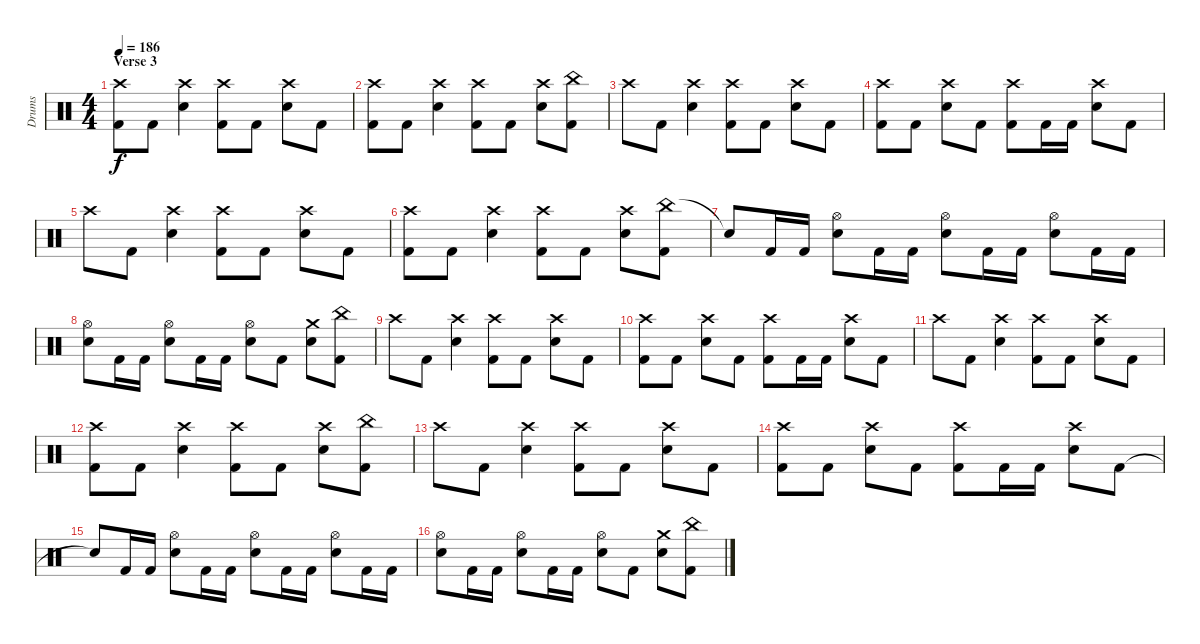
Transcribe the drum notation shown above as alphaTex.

\track ("Drums" "Drums") {instrument percussion}
\staff {score}
\articulation defaults
\ts (4 4)
\section ("" "Verse 3")
\tempo 186
\clef neutral
\ks c
("Crash high (hit)" "Kick (hit) 2").8{dy f} "Kick (hit) 2".8 ("Crash high (hit)" "Snare (hit) 2").4 ("Crash high (hit)" "Kick (hit) 2").8 "Kick (hit) 2".8 ("Crash high (hit)" "Snare (hit) 2").8 "Kick (hit) 2".8 |
("Crash high (hit)" "Kick (hit) 2").8 "Kick (hit) 2".8 ("Crash high (hit)" "Snare (hit) 2").4 ("Crash high (hit)" "Kick (hit) 2").8 "Kick (hit) 2".8 ("Crash high (hit)" "Snare (hit) 2").8 ("China (hit)" "Kick (hit) 2").8 |
"Crash high (hit)".8 "Kick (hit) 2".8 ("Crash high (hit)" "Snare (hit) 2").4 ("Crash high (hit)" "Kick (hit) 2").8 "Kick (hit) 2".8 ("Crash high (hit)" "Snare (hit) 2").8 "Kick (hit) 2".8 |
("Crash high (hit)" "Kick (hit) 2").8 "Kick (hit) 2".8 ("Crash high (hit)" "Snare (hit) 2").8 "Kick (hit) 2".8 ("Crash high (hit)" "Kick (hit) 2").8 "Kick (hit) 2".16 "Kick (hit) 2".16 ("Crash high (hit)" "Snare (hit) 2").8 "Kick (hit) 2".8 |
"Crash high (hit)".8 "Kick (hit) 2".8 ("Crash high (hit)" "Snare (hit) 2").4 ("Crash high (hit)" "Kick (hit) 2").8 "Kick (hit) 2".8 ("Crash high (hit)" "Snare (hit) 2").8 "Kick (hit) 2".8 |
("Crash high (hit)" "Kick (hit) 2").8 "Kick (hit) 2".8 ("Crash high (hit)" "Snare (hit) 2").4 ("Crash high (hit)" "Kick (hit) 2").8 "Kick (hit) 2".8 ("Crash high (hit)" "Snare (hit) 2").8 ("China (hit)" "Kick (hit) 2").8 |
"Snare (hit)"{t}.8 "Kick (hit) 2".16 "Kick (hit) 2".16 ("Hi-Hat (open)" "Snare (hit) 2").8 "Kick (hit) 2".16 "Kick (hit) 2".16 ("Hi-Hat (open)" "Snare (hit) 2").8 "Kick (hit) 2".16 "Kick (hit) 2".16 ("Hi-Hat (open)" "Snare (hit) 2").8 "Kick (hit) 2".16 "Kick (hit) 2".16 |
("Hi-Hat (open)" "Snare (hit) 2").8 "Kick (hit) 2".16 "Kick (hit) 2".16 ("Hi-Hat (open)" "Snare (hit) 2").8 "Kick (hit) 2".16 "Kick (hit) 2".16 ("Hi-Hat (open)" "Snare (hit) 2").8 "Kick (hit) 2".8 ("Crash medium (hit)" "Snare (hit) 2").8 ("China (hit)" "Kick (hit) 2").8 |
"Crash high (hit)".8 "Kick (hit) 2".8 ("Crash high (hit)" "Snare (hit) 2").4 ("Crash high (hit)" "Kick (hit) 2").8 "Kick (hit) 2".8 ("Crash high (hit)" "Snare (hit) 2").8 "Kick (hit) 2".8 |
("Crash high (hit)" "Kick (hit) 2").8 "Kick (hit) 2".8 ("Crash high (hit)" "Snare (hit) 2").8 "Kick (hit) 2".8 ("Crash high (hit)" "Kick (hit) 2").8 "Kick (hit) 2".16 "Kick (hit) 2".16 ("Crash high (hit)" "Snare (hit) 2").8 "Kick (hit) 2".8 |
"Crash high (hit)".8 "Kick (hit) 2".8 ("Crash high (hit)" "Snare (hit) 2").4 ("Crash high (hit)" "Kick (hit) 2").8 "Kick (hit) 2".8 ("Crash high (hit)" "Snare (hit) 2").8 "Kick (hit) 2".8 |
("Crash high (hit)" "Kick (hit) 2").8 "Kick (hit) 2".8 ("Crash high (hit)" "Snare (hit) 2").4 ("Crash high (hit)" "Kick (hit) 2").8 "Kick (hit) 2".8 ("Crash high (hit)" "Snare (hit) 2").8 ("China (hit)" "Kick (hit) 2").8 |
"Crash high (hit)".8 "Kick (hit) 2".8 ("Crash high (hit)" "Snare (hit) 2").4 ("Crash high (hit)" "Kick (hit) 2").8 "Kick (hit) 2".8 ("Crash high (hit)" "Snare (hit) 2").8 "Kick (hit) 2".8 |
("Crash high (hit)" "Kick (hit) 2").8 "Kick (hit) 2".8 ("Crash high (hit)" "Snare (hit) 2").8 "Kick (hit) 2".8 ("Crash high (hit)" "Kick (hit) 2").8 "Kick (hit) 2".16 "Kick (hit) 2".16 ("Crash high (hit)" "Snare (hit) 2").8 "Kick (hit) 2".8 |
"Snare (hit)"{t}.8 "Kick (hit) 2".16 "Kick (hit) 2".16 ("Hi-Hat (open)" "Snare (hit) 2").8 "Kick (hit) 2".16 "Kick (hit) 2".16 ("Hi-Hat (open)" "Snare (hit) 2").8 "Kick (hit) 2".16 "Kick (hit) 2".16 ("Hi-Hat (open)" "Snare (hit) 2").8 "Kick (hit) 2".16 "Kick (hit) 2".16 |
("Hi-Hat (open)" "Snare (hit) 2").8 "Kick (hit) 2".16 "Kick (hit) 2".16 ("Hi-Hat (open)" "Snare (hit) 2").8 "Kick (hit) 2".16 "Kick (hit) 2".16 ("Hi-Hat (open)" "Snare (hit) 2").8 "Kick (hit) 2".8 ("Crash medium (hit)" "Snare (hit) 2").8 ("China (hit)" "Kick (hit) 2").8
